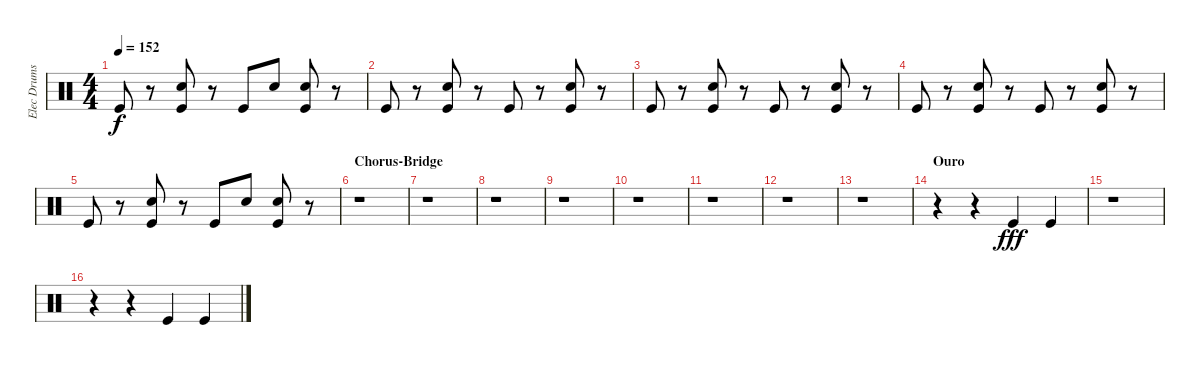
\track ("Elec Drums" "Elec Drums") {instrument percussion}
\staff {score}
\articulation defaults
\ts (4 4)
\tempo 152
\clef neutral
\ks c "Kick (hit)".8{dy f}
r.8 ("Electric Snare (hit)" "Kick (hit)").8 r.8 "Kick (hit)".8 "Electric Snare (hit)".8 ("Electric Snare (hit)" "Kick (hit)").8 r.8 |
"Kick (hit)".8 r.8 ("Electric Snare (hit)" "Kick (hit)").8 r.8 "Kick (hit)".8 r.8 ("Electric Snare (hit)" "Kick (hit)").8 r.8 |
"Kick (hit)".8 r.8 ("Electric Snare (hit)" "Kick (hit)").8 r.8 "Kick (hit)".8 r.8 ("Electric Snare (hit)" "Kick (hit)").8 r.8 |
"Kick (hit)".8 r.8 ("Electric Snare (hit)" "Kick (hit)").8 r.8 "Kick (hit)".8 r.8 ("Electric Snare (hit)" "Kick (hit)").8 r.8 |
"Kick (hit)".8 r.8 ("Electric Snare (hit)" "Kick (hit)").8 r.8 "Kick (hit)".8 "Electric Snare (hit)".8 ("Electric Snare (hit)" "Kick (hit)").8 r.8 |
\section ("" "Chorus-Bridge")
r.1 |
r.1 |
r.1 |
r.1 |
r.1 |
r.1 |
r.1 |
r.1 |
\section ("" "Ouro")
r.4 r.4 "Kick (hit)".4{dy fff} "Kick (hit)".4 |
r.1 |
r.4 r.4 "Kick (hit)".4 "Kick (hit)".4
